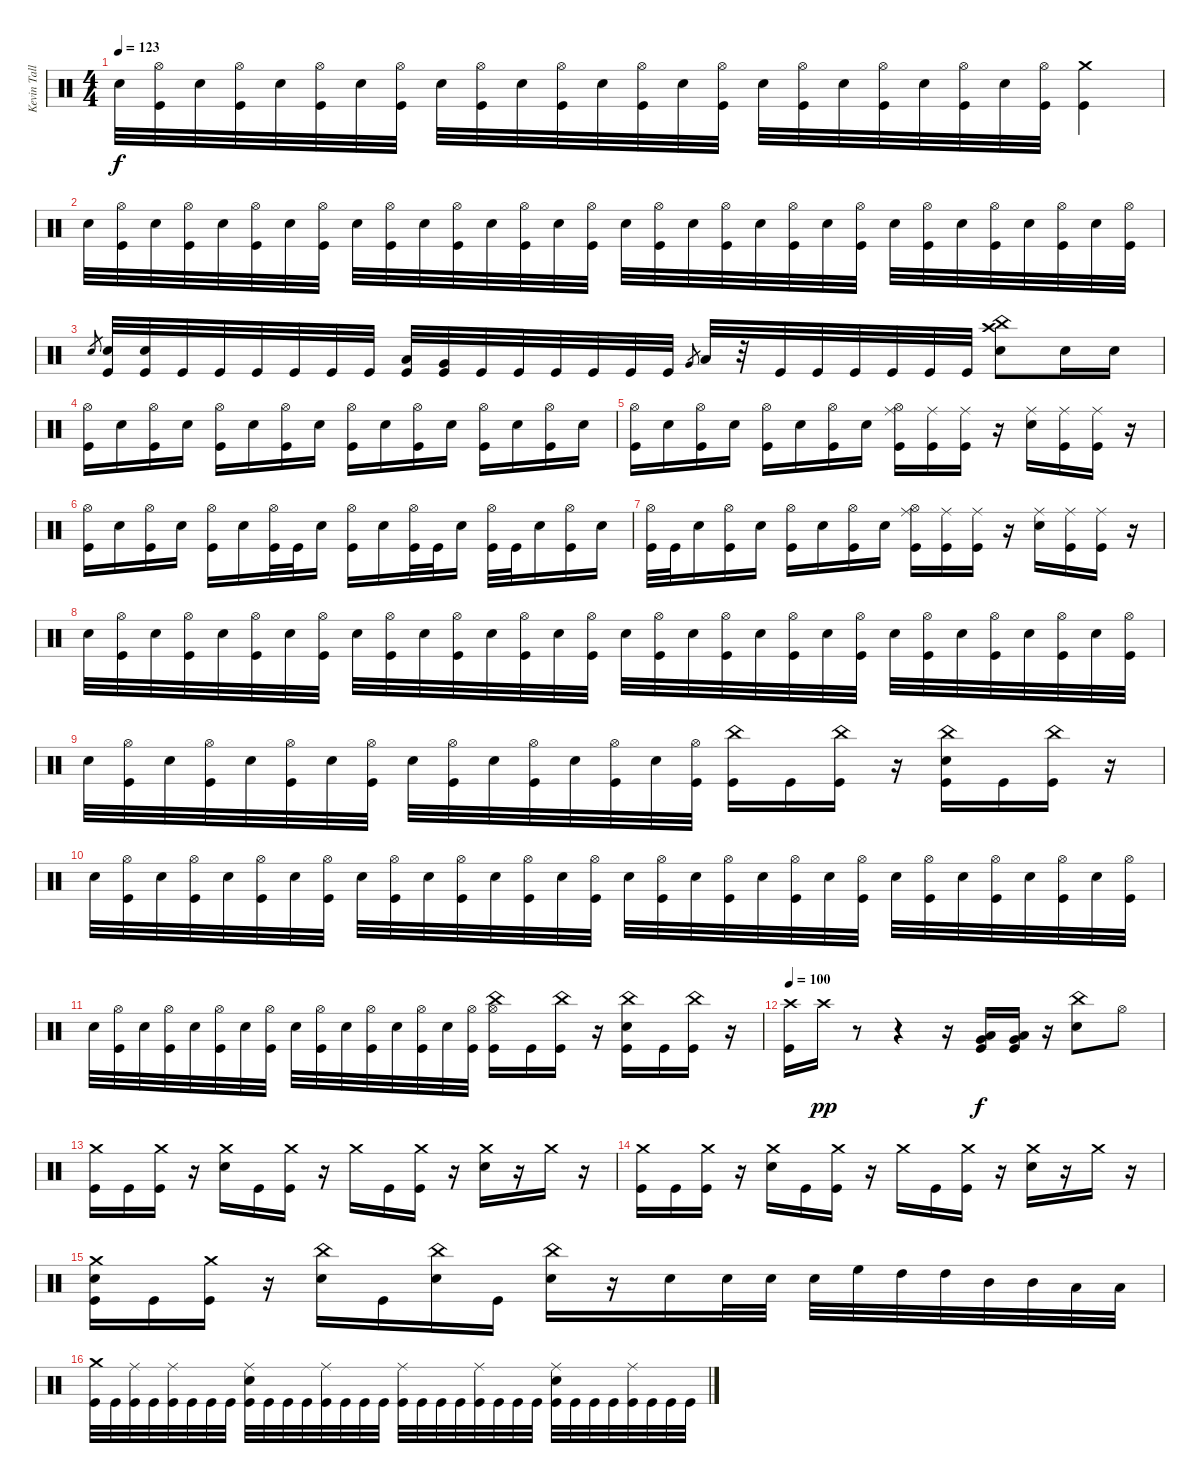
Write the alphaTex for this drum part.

\track ("Kevin Talley" "Kevin Tall") {instrument percussion}
\staff {score}
\articulation defaults
\ts (4 4)
\tempo 123
\clef neutral
\ks c "Electric Snare (hit)".32{dy f}
("Hi-Hat (open)" "Kick (hit)").32 "Electric Snare (hit)".32 ("Hi-Hat (open)" "Kick (hit)").32 "Electric Snare (hit)".32 ("Hi-Hat (open)" "Kick (hit)").32 "Electric Snare (hit)".32 ("Hi-Hat (open)" "Kick (hit)").32 "Electric Snare (hit)".32 ("Hi-Hat (open)" "Kick (hit)").32 "Electric Snare (hit)".32 ("Hi-Hat (open)" "Kick (hit)").32 "Electric Snare (hit)".32 ("Hi-Hat (open)" "Kick (hit)").32 "Electric Snare (hit)".32 ("Hi-Hat (open)" "Kick (hit)").32 "Electric Snare (hit)".32 ("Hi-Hat (open)" "Kick (hit)").32 "Electric Snare (hit)".32 ("Hi-Hat (open)" "Kick (hit)").32 "Electric Snare (hit)".32 ("Hi-Hat (open)" "Kick (hit)").32 "Electric Snare (hit)".32 ("Hi-Hat (open)" "Kick (hit)").32 ("Crash medium (hit)" "Kick (hit)").4 |
"Electric Snare (hit)".32 ("Hi-Hat (open)" "Kick (hit)").32 "Electric Snare (hit)".32 ("Hi-Hat (open)" "Kick (hit)").32 "Electric Snare (hit)".32 ("Hi-Hat (open)" "Kick (hit)").32 "Electric Snare (hit)".32 ("Hi-Hat (open)" "Kick (hit)").32 "Electric Snare (hit)".32 ("Hi-Hat (open)" "Kick (hit)").32 "Electric Snare (hit)".32 ("Hi-Hat (open)" "Kick (hit)").32 "Electric Snare (hit)".32 ("Hi-Hat (open)" "Kick (hit)").32 "Electric Snare (hit)".32 ("Hi-Hat (open)" "Kick (hit)").32 "Electric Snare (hit)".32 ("Hi-Hat (open)" "Kick (hit)").32 "Electric Snare (hit)".32 ("Hi-Hat (open)" "Kick (hit)").32 "Electric Snare (hit)".32 ("Hi-Hat (open)" "Kick (hit)").32 "Electric Snare (hit)".32 ("Hi-Hat (open)" "Kick (hit)").32 "Electric Snare (hit)".32 ("Hi-Hat (open)" "Kick (hit)").32 "Electric Snare (hit)".32 ("Hi-Hat (open)" "Kick (hit)").32 "Electric Snare (hit)".32 ("Hi-Hat (open)" "Kick (hit)").32 "Electric Snare (hit)".32 ("Hi-Hat (open)" "Kick (hit)").32 |
"Electric Snare (hit)".8{gr} ("Electric Snare (hit)" "Kick (hit)").32 ("Electric Snare (hit)" "Kick (hit)").32 "Kick (hit)".32 "Kick (hit)".32 "Kick (hit)".32 "Kick (hit)".32 "Kick (hit)".32 "Kick (hit)".32 ("Low Tom (hit)" "Kick (hit)").32 ("Very Low Tom (hit)" "Kick (hit)").32 "Kick (hit)".32 "Kick (hit)".32 "Kick (hit)".32 "Kick (hit)".32 "Kick (hit)".32 "Kick (hit)".32 "Very Low Tom (hit)".8{gr} "Low Tom (hit)".32 r.32 "Kick (hit)".32 "Kick (hit)".32 "Kick (hit)".32 "Kick (hit)".32 "Kick (hit)".32 "Kick (hit)".32 ("Crash high (hit)" "China (hit)" "Electric Snare (hit)").8 "Electric Snare (hit)".16 "Electric Snare (hit)".16 |
("Hi-Hat (open)" "Kick (hit)").16 "Electric Snare (hit)".16 ("Hi-Hat (open)" "Kick (hit)").16 "Electric Snare (hit)".16 ("Hi-Hat (open)" "Kick (hit)").16 "Electric Snare (hit)".16 ("Hi-Hat (open)" "Kick (hit)").16 "Electric Snare (hit)".16 ("Hi-Hat (open)" "Kick (hit)").16 "Electric Snare (hit)".16 ("Hi-Hat (open)" "Kick (hit)").16 "Electric Snare (hit)".16 ("Hi-Hat (open)" "Kick (hit)").16 "Electric Snare (hit)".16 ("Hi-Hat (open)" "Kick (hit)").16 "Electric Snare (hit)".16 |
("Hi-Hat (open)" "Kick (hit)").16 "Electric Snare (hit)".16 ("Hi-Hat (open)" "Kick (hit)").16 "Electric Snare (hit)".16 ("Hi-Hat (open)" "Kick (hit)").16 "Electric Snare (hit)".16 ("Hi-Hat (open)" "Kick (hit)").16 "Electric Snare (hit)".16 ("Ride (middle)" "Hi-Hat (open)" "Kick (hit)").16 ("Ride (middle)" "Kick (hit)").16 ("Ride (middle)" "Kick (hit)").16 r.16 ("Ride (middle)" "Electric Snare (hit)").16 ("Ride (middle)" "Kick (hit)").16 ("Ride (middle)" "Kick (hit)").16 r.16 |
("Hi-Hat (open)" "Kick (hit)").16 "Electric Snare (hit)".16 ("Hi-Hat (open)" "Kick (hit)").16 "Electric Snare (hit)".16 ("Hi-Hat (open)" "Kick (hit)").16 "Electric Snare (hit)".16 ("Hi-Hat (open)" "Kick (hit)").32 "Kick (hit)".32 "Electric Snare (hit)".16 ("Hi-Hat (open)" "Kick (hit)").16 "Electric Snare (hit)".16 ("Hi-Hat (open)" "Kick (hit)").32 "Kick (hit)".32 "Electric Snare (hit)".16 ("Hi-Hat (open)" "Kick (hit)").32 "Kick (hit)".32 "Electric Snare (hit)".16 ("Hi-Hat (open)" "Kick (hit)").16 "Electric Snare (hit)".16 |
("Hi-Hat (open)" "Kick (hit)").32 "Kick (hit)".32 "Electric Snare (hit)".16 ("Hi-Hat (open)" "Kick (hit)").16 "Electric Snare (hit)".16 ("Hi-Hat (open)" "Kick (hit)").16 "Electric Snare (hit)".16 ("Hi-Hat (open)" "Kick (hit)").16 "Electric Snare (hit)".16 ("Ride (middle)" "Hi-Hat (open)" "Kick (hit)").16 ("Ride (middle)" "Kick (hit)").16 ("Ride (middle)" "Kick (hit)").16 r.16 ("Ride (middle)" "Electric Snare (hit)").16 ("Ride (middle)" "Kick (hit)").16 ("Ride (middle)" "Kick (hit)").16 r.16 |
"Electric Snare (hit)".32 ("Hi-Hat (open)" "Kick (hit)").32 "Electric Snare (hit)".32 ("Hi-Hat (open)" "Kick (hit)").32 "Electric Snare (hit)".32 ("Hi-Hat (open)" "Kick (hit)").32 "Electric Snare (hit)".32 ("Hi-Hat (open)" "Kick (hit)").32 "Electric Snare (hit)".32 ("Hi-Hat (open)" "Kick (hit)").32 "Electric Snare (hit)".32 ("Hi-Hat (open)" "Kick (hit)").32 "Electric Snare (hit)".32 ("Hi-Hat (open)" "Kick (hit)").32 "Electric Snare (hit)".32 ("Hi-Hat (open)" "Kick (hit)").32 "Electric Snare (hit)".32 ("Hi-Hat (open)" "Kick (hit)").32 "Electric Snare (hit)".32 ("Hi-Hat (open)" "Kick (hit)").32 "Electric Snare (hit)".32 ("Hi-Hat (open)" "Kick (hit)").32 "Electric Snare (hit)".32 ("Hi-Hat (open)" "Kick (hit)").32 "Electric Snare (hit)".32 ("Hi-Hat (open)" "Kick (hit)").32 "Electric Snare (hit)".32 ("Hi-Hat (open)" "Kick (hit)").32 "Electric Snare (hit)".32 ("Hi-Hat (open)" "Kick (hit)").32 "Electric Snare (hit)".32 ("Hi-Hat (open)" "Kick (hit)").32 |
"Electric Snare (hit)".32 ("Hi-Hat (open)" "Kick (hit)").32 "Electric Snare (hit)".32 ("Hi-Hat (open)" "Kick (hit)").32 "Electric Snare (hit)".32 ("Hi-Hat (open)" "Kick (hit)").32 "Electric Snare (hit)".32 ("Hi-Hat (open)" "Kick (hit)").32 "Electric Snare (hit)".32 ("Hi-Hat (open)" "Kick (hit)").32 "Electric Snare (hit)".32 ("Hi-Hat (open)" "Kick (hit)").32 "Electric Snare (hit)".32 ("Hi-Hat (open)" "Kick (hit)").32 "Electric Snare (hit)".32 ("Hi-Hat (open)" "Kick (hit)").32 ("China (hit)" "Kick (hit)").16 "Kick (hit)".16 ("China (hit)" "Kick (hit)").16 r.16 ("China (hit)" "Electric Snare (hit)" "Kick (hit)").16 "Kick (hit)".16 ("China (hit)" "Kick (hit)").16 r.16 |
"Electric Snare (hit)".32 ("Hi-Hat (open)" "Kick (hit)").32 "Electric Snare (hit)".32 ("Hi-Hat (open)" "Kick (hit)").32 "Electric Snare (hit)".32 ("Hi-Hat (open)" "Kick (hit)").32 "Electric Snare (hit)".32 ("Hi-Hat (open)" "Kick (hit)").32 "Electric Snare (hit)".32 ("Hi-Hat (open)" "Kick (hit)").32 "Electric Snare (hit)".32 ("Hi-Hat (open)" "Kick (hit)").32 "Electric Snare (hit)".32 ("Hi-Hat (open)" "Kick (hit)").32 "Electric Snare (hit)".32 ("Hi-Hat (open)" "Kick (hit)").32 "Electric Snare (hit)".32 ("Hi-Hat (open)" "Kick (hit)").32 "Electric Snare (hit)".32 ("Hi-Hat (open)" "Kick (hit)").32 "Electric Snare (hit)".32 ("Hi-Hat (open)" "Kick (hit)").32 "Electric Snare (hit)".32 ("Hi-Hat (open)" "Kick (hit)").32 "Electric Snare (hit)".32 ("Hi-Hat (open)" "Kick (hit)").32 "Electric Snare (hit)".32 ("Hi-Hat (open)" "Kick (hit)").32 "Electric Snare (hit)".32 ("Hi-Hat (open)" "Kick (hit)").32 "Electric Snare (hit)".32 ("Hi-Hat (open)" "Kick (hit)").32 |
"Electric Snare (hit)".32 ("Hi-Hat (open)" "Kick (hit)").32 "Electric Snare (hit)".32 ("Hi-Hat (open)" "Kick (hit)").32 "Electric Snare (hit)".32 ("Hi-Hat (open)" "Kick (hit)").32 "Electric Snare (hit)".32 ("Hi-Hat (open)" "Kick (hit)").32 "Electric Snare (hit)".32 ("Hi-Hat (open)" "Kick (hit)").32 "Electric Snare (hit)".32 ("Hi-Hat (open)" "Kick (hit)").32 "Electric Snare (hit)".32 ("Hi-Hat (open)" "Kick (hit)").32 "Electric Snare (hit)".32 ("Hi-Hat (open)" "Kick (hit)").32 ("China (hit)" "Hi-Hat (open)" "Kick (hit)").16 "Kick (hit)".16 ("China (hit)" "Kick (hit)").16 r.16 ("China (hit)" "Electric Snare (hit)" "Kick (hit)").16 "Kick (hit)".16 ("China (hit)" "Kick (hit)").16 r.16 |
\tempo 100
("Crash high (hit)" "Kick (hit)").16 "Crash high (hit)".16{dy pp} r.8 r.4 r.16 ("Very Low Tom (hit)" "Low Floor Tom (hit)" "Kick (hit)").16{dy f} ("Low Floor Tom (hit)" "Very Low Tom (hit)" "Kick (hit)").16 r.16 ("China (hit)" "Electric Snare (hit)").8 "Hi-Hat (open)".8 |
("Crash medium (hit)" "Kick (hit)").16 "Kick (hit)".16 ("Crash medium (hit)" "Kick (hit)").16 r.16 ("Crash medium (hit)" "Electric Snare (hit)").16 "Kick (hit)".16 ("Crash medium (hit)" "Kick (hit)").16 r.16 "Crash medium (hit)".16 "Kick (hit)".16 ("Crash medium (hit)" "Kick (hit)").16 r.16 ("Crash medium (hit)" "Electric Snare (hit)").16 r.16 "Crash medium (hit)".16 r.16 |
("Crash medium (hit)" "Kick (hit)").16 "Kick (hit)".16 ("Crash medium (hit)" "Kick (hit)").16 r.16 ("Crash medium (hit)" "Electric Snare (hit)").16 "Kick (hit)".16 ("Crash medium (hit)" "Kick (hit)").16 r.16 "Crash medium (hit)".16 "Kick (hit)".16 ("Crash medium (hit)" "Kick (hit)").16 r.16 ("Crash medium (hit)" "Electric Snare (hit)").16 r.16 "Crash medium (hit)".16 r.16 |
("Crash medium (hit)" "Electric Snare (hit)" "Kick (hit)").16 "Kick (hit)".16 ("Crash medium (hit)" "Kick (hit)").16 r.16 ("China (hit)" "Electric Snare (hit)").16 "Kick (hit)".16 ("China (hit)" "Electric Snare (hit)").16 "Kick (hit)".16 ("China (hit)" "Electric Snare (hit)").16 r.16 "Electric Snare (hit)".16 "Electric Snare (hit)".32 "Electric Snare (hit)".32 "Electric Snare (hit)".32 "High Floor Tom (hit)".32 "High Tom (hit)".32 "High Tom (hit)".32 "Mid Tom (hit)".32 "Mid Tom (hit)".32 "Low Tom (hit)".32 "Low Tom (hit)".32 |
("Crash medium (hit)" "Kick (hit)").32 "Kick (hit)".32 ("Ride (middle)" "Kick (hit)").32 "Kick (hit)".32 ("Ride (middle)" "Kick (hit)").32 "Kick (hit)".32 "Kick (hit)".32 "Kick (hit)".32 ("Ride (middle)" "Electric Snare (hit)" "Kick (hit)").32 "Kick (hit)".32 "Kick (hit)".32 "Kick (hit)".32 ("Ride (middle)" "Kick (hit)").32 "Kick (hit)".32 "Kick (hit)".32 "Kick (hit)".32 ("Ride (middle)" "Kick (hit)").32 "Kick (hit)".32 "Kick (hit)".32 "Kick (hit)".32 ("Ride (middle)" "Kick (hit)").32 "Kick (hit)".32 "Kick (hit)".32 "Kick (hit)".32 ("Ride (middle)" "Electric Snare (hit)" "Kick (hit)").32 "Kick (hit)".32 "Kick (hit)".32 "Kick (hit)".32 ("Ride (middle)" "Kick (hit)").32 "Kick (hit)".32 "Kick (hit)".32 "Kick (hit)".32
